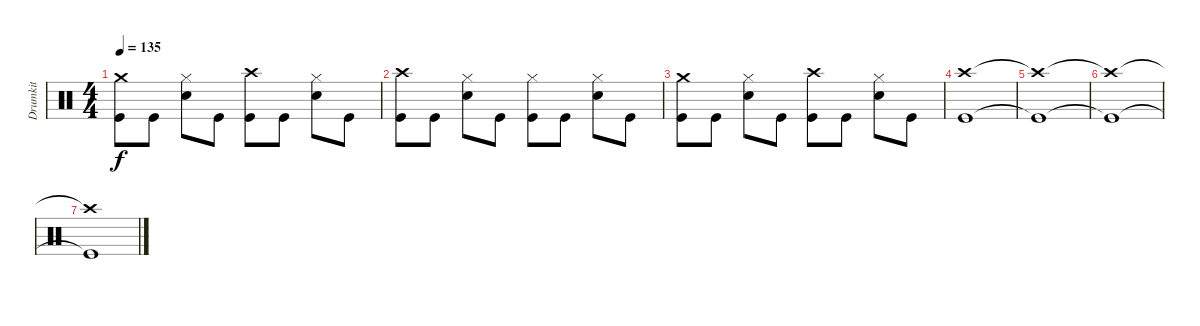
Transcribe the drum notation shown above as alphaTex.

\track ("Drumkit" "Drumkit") {instrument percussion}
\staff {score}
\articulation defaults
\ts (4 4)
\tempo 135
\clef neutral
\ks c
("Crash medium (hit)" "Kick (hit)").8{dy f} "Kick (hit)".8 ("Hi-Hat (closed)" "Snare (hit) 2").8 "Kick (hit)".8 ("Crash high (hit)" "Kick (hit)").8 "Kick (hit)".8 ("Hi-Hat (closed)" "Snare (hit) 2").8 "Kick (hit)".8 |
("Crash high (hit)" "Kick (hit)").8 "Kick (hit)".8 ("Hi-Hat (closed)" "Snare (hit) 2").8 "Kick (hit)".8 ("Hi-Hat (closed)" "Kick (hit)").8 "Kick (hit)".8 ("Hi-Hat (closed)" "Snare (hit) 2").8 "Kick (hit)".8 |
("Crash medium (hit)" "Kick (hit)").8 "Kick (hit)".8 ("Hi-Hat (closed)" "Snare (hit) 2").8 "Kick (hit)".8 ("Crash high (hit)" "Kick (hit)").8 "Kick (hit)".8 ("Hi-Hat (closed)" "Snare (hit) 2").8 "Kick (hit)".8 |
("Crash high (hit)" "Kick (hit)").1 |
("Crash high (hit)"{t} "Kick (hit)"{t}).1 |
("Crash high (hit)"{t} "Kick (hit)"{t}).1 |
("Crash high (hit)"{t} "Kick (hit)"{t}).1
